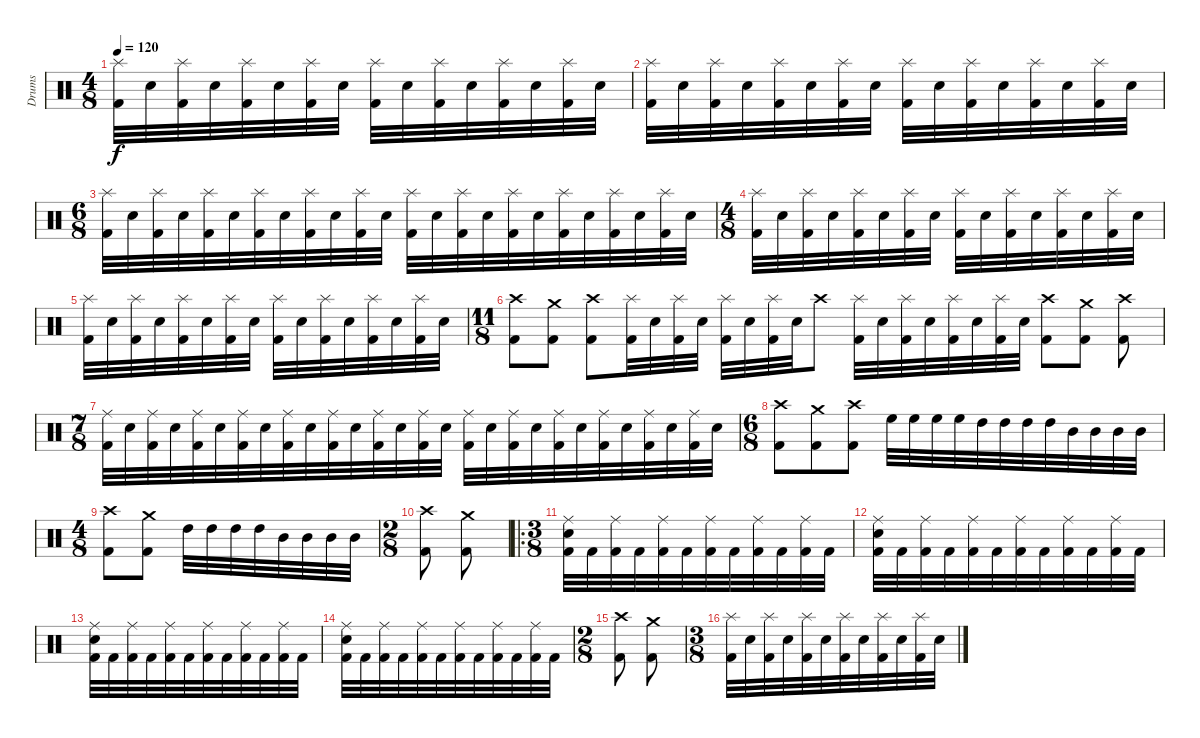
\track ("Drums" "Drums") {instrument percussion}
\staff {score}
\articulation defaults
\ts (4 8)
\tempo 120
\clef neutral
\ks c
("Splash (hit)" "Kick (hit) 2").32{dy f} "Snare (hit) 2".32 ("Splash (hit)" "Kick (hit) 2").32 "Snare (hit) 2".32 ("Splash (hit)" "Kick (hit) 2").32 "Snare (hit) 2".32 ("Splash (hit)" "Kick (hit) 2").32 "Snare (hit) 2".32 ("Splash (hit)" "Kick (hit) 2").32 "Snare (hit) 2".32 ("Splash (hit)" "Kick (hit) 2").32 "Snare (hit) 2".32 ("Splash (hit)" "Kick (hit) 2").32 "Snare (hit) 2".32 ("Splash (hit)" "Kick (hit) 2").32 "Snare (hit) 2".32 |
("Splash (hit)" "Kick (hit) 2").32 "Snare (hit) 2".32 ("Splash (hit)" "Kick (hit) 2").32 "Snare (hit) 2".32 ("Splash (hit)" "Kick (hit) 2").32 "Snare (hit) 2".32 ("Splash (hit)" "Kick (hit) 2").32 "Snare (hit) 2".32 ("Splash (hit)" "Kick (hit) 2").32 "Snare (hit) 2".32 ("Splash (hit)" "Kick (hit) 2").32 "Snare (hit) 2".32 ("Splash (hit)" "Kick (hit) 2").32 "Snare (hit) 2".32 ("Splash (hit)" "Kick (hit) 2").32 "Snare (hit) 2".32 |
\ts (6 8)
("Splash (hit)" "Kick (hit) 2").32 "Snare (hit) 2".32 ("Splash (hit)" "Kick (hit) 2").32 "Snare (hit) 2".32 ("Splash (hit)" "Kick (hit) 2").32 "Snare (hit) 2".32 ("Splash (hit)" "Kick (hit) 2").32 "Snare (hit) 2".32 ("Splash (hit)" "Kick (hit) 2").32 "Snare (hit) 2".32 ("Splash (hit)" "Kick (hit) 2").32 "Snare (hit) 2".32 ("Splash (hit)" "Kick (hit) 2").32 "Snare (hit) 2".32 ("Splash (hit)" "Kick (hit) 2").32 "Snare (hit) 2".32 ("Splash (hit)" "Kick (hit) 2").32 "Snare (hit) 2".32 ("Splash (hit)" "Kick (hit) 2").32 "Snare (hit) 2".32 ("Splash (hit)" "Kick (hit) 2").32 "Snare (hit) 2".32 ("Splash (hit)" "Kick (hit) 2").32 "Snare (hit) 2".32 |
\ts (4 8)
("Splash (hit)" "Kick (hit) 2").32 "Snare (hit) 2".32 ("Splash (hit)" "Kick (hit) 2").32 "Snare (hit) 2".32 ("Splash (hit)" "Kick (hit) 2").32 "Snare (hit) 2".32 ("Splash (hit)" "Kick (hit) 2").32 "Snare (hit) 2".32 ("Splash (hit)" "Kick (hit) 2").32 "Snare (hit) 2".32 ("Splash (hit)" "Kick (hit) 2").32 "Snare (hit) 2".32 ("Splash (hit)" "Kick (hit) 2").32 "Snare (hit) 2".32 ("Splash (hit)" "Kick (hit) 2").32 "Snare (hit) 2".32 |
("Splash (hit)" "Kick (hit) 2").32 "Snare (hit) 2".32 ("Splash (hit)" "Kick (hit) 2").32 "Snare (hit) 2".32 ("Splash (hit)" "Kick (hit) 2").32 "Snare (hit) 2".32 ("Splash (hit)" "Kick (hit) 2").32 "Snare (hit) 2".32 ("Splash (hit)" "Kick (hit) 2").32 "Snare (hit) 2".32 ("Splash (hit)" "Kick (hit) 2").32 "Snare (hit) 2".32 ("Splash (hit)" "Kick (hit) 2").32 "Snare (hit) 2".32 ("Splash (hit)" "Kick (hit) 2").32 "Snare (hit) 2".32 |
\ts (11 8)
("Crash high (hit)" "Kick (hit) 2").8 ("Crash medium (hit)" "Kick (hit) 2").8 ("Crash high (hit)" "Kick (hit) 2").8 ("Splash (hit)" "Kick (hit) 2").32 "Snare (hit) 2".32 ("Splash (hit)" "Kick (hit) 2").32 "Snare (hit) 2".32 ("Splash (hit)" "Kick (hit) 2").32 "Snare (hit) 2".32 ("Splash (hit)" "Kick (hit) 2").32 "Snare (hit) 2".32 "Crash high (hit)".8 ("Splash (hit)" "Kick (hit) 2").32 "Snare (hit) 2".32 ("Splash (hit)" "Kick (hit) 2").32 "Snare (hit) 2".32 ("Splash (hit)" "Kick (hit) 2").32 "Snare (hit) 2".32 ("Splash (hit)" "Kick (hit) 2").32 "Snare (hit) 2".32 ("Crash high (hit)" "Kick (hit) 2").8 ("Crash medium (hit)" "Kick (hit) 2").8 ("Crash high (hit)" "Kick (hit) 2").8 |
\ts (7 8)
("Ride (middle)" "Kick (hit) 2").32 "Snare (hit) 2".32 ("Ride (middle)" "Kick (hit) 2").32 "Snare (hit) 2".32 ("Ride (middle)" "Kick (hit) 2").32 "Snare (hit) 2".32 ("Ride (middle)" "Kick (hit) 2").32 "Snare (hit) 2".32 ("Ride (middle)" "Kick (hit) 2").32 "Snare (hit) 2".32 ("Ride (middle)" "Kick (hit) 2").32 "Snare (hit) 2".32 ("Ride (middle)" "Kick (hit) 2").32 "Snare (hit) 2".32 ("Ride (middle)" "Kick (hit) 2").32 "Snare (hit) 2".32 ("Ride (middle)" "Kick (hit) 2").32 "Snare (hit) 2".32 ("Ride (middle)" "Kick (hit) 2").32 "Snare (hit) 2".32 ("Ride (middle)" "Kick (hit) 2").32 "Snare (hit) 2".32 ("Ride (middle)" "Kick (hit) 2").32 "Snare (hit) 2".32 ("Ride (middle)" "Kick (hit) 2").32 "Snare (hit) 2".32 ("Ride (middle)" "Kick (hit) 2").32 "Snare (hit) 2".32 |
\ts (6 8)
("Crash high (hit)" "Kick (hit) 2").8 ("Crash medium (hit)" "Kick (hit) 2").8 ("Crash high (hit)" "Kick (hit) 2").8 "High Floor Tom (hit)".32 "High Floor Tom (hit)".32 "High Floor Tom (hit)".32 "High Floor Tom (hit)".32 "High Tom (hit)".32 "High Tom (hit)".32 "High Tom (hit)".32 "High Tom (hit)".32 "Mid Tom (hit)".32 "Mid Tom (hit)".32 "Mid Tom (hit)".32 "Mid Tom (hit)".32 |
\ts (4 8)
("Crash high (hit)" "Kick (hit) 2").8 ("Crash medium (hit)" "Kick (hit) 2").8 "High Tom (hit)".32 "High Tom (hit)".32 "High Tom (hit)".32 "High Tom (hit)".32 "Mid Tom (hit)".32 "Mid Tom (hit)".32 "Mid Tom (hit)".32 "Mid Tom (hit)".32 |
\ts (2 8)
("Crash high (hit)" "Kick (hit) 2").8 ("Crash medium (hit)" "Kick (hit) 2").8 |
\ro
\ts (3 8)
("Ride (middle)" "Snare (hit) 2" "Kick (hit) 2").32 "Kick (hit) 2".32 ("Ride (middle)" "Kick (hit) 2").32 "Kick (hit) 2".32 ("Ride (middle)" "Kick (hit) 2").32 "Kick (hit) 2".32 ("Ride (middle)" "Kick (hit) 2").32 "Kick (hit) 2".32 ("Ride (middle)" "Kick (hit) 2").32 "Kick (hit) 2".32 ("Ride (middle)" "Kick (hit) 2").32 "Kick (hit) 2".32 |
("Ride (middle)" "Snare (hit) 2" "Kick (hit) 2").32 "Kick (hit) 2".32 ("Ride (middle)" "Kick (hit) 2").32 "Kick (hit) 2".32 ("Ride (middle)" "Kick (hit) 2").32 "Kick (hit) 2".32 ("Ride (middle)" "Kick (hit) 2").32 "Kick (hit) 2".32 ("Ride (middle)" "Kick (hit) 2").32 "Kick (hit) 2".32 ("Ride (middle)" "Kick (hit) 2").32 "Kick (hit) 2".32 |
("Ride (middle)" "Snare (hit) 2" "Kick (hit) 2").32 "Kick (hit) 2".32 ("Ride (middle)" "Kick (hit) 2").32 "Kick (hit) 2".32 ("Ride (middle)" "Kick (hit) 2").32 "Kick (hit) 2".32 ("Ride (middle)" "Kick (hit) 2").32 "Kick (hit) 2".32 ("Ride (middle)" "Kick (hit) 2").32 "Kick (hit) 2".32 ("Ride (middle)" "Kick (hit) 2").32 "Kick (hit) 2".32 |
("Ride (middle)" "Snare (hit) 2" "Kick (hit) 2").32 "Kick (hit) 2".32 ("Ride (middle)" "Kick (hit) 2").32 "Kick (hit) 2".32 ("Ride (middle)" "Kick (hit) 2").32 "Kick (hit) 2".32 ("Ride (middle)" "Kick (hit) 2").32 "Kick (hit) 2".32 ("Ride (middle)" "Kick (hit) 2").32 "Kick (hit) 2".32 ("Ride (middle)" "Kick (hit) 2").32 "Kick (hit) 2".32 |
\ts (2 8)
("Crash high (hit)" "Kick (hit) 2").8 ("Crash medium (hit)" "Kick (hit) 2").8 |
\ts (3 8)
("Splash (hit)" "Kick (hit) 2").32 "Snare (hit) 2".32 ("Splash (hit)" "Kick (hit) 2").32 "Snare (hit) 2".32 ("Splash (hit)" "Kick (hit) 2").32 "Snare (hit) 2".32 ("Splash (hit)" "Kick (hit) 2").32 "Snare (hit) 2".32 ("Splash (hit)" "Kick (hit) 2").32 "Snare (hit) 2".32 ("Splash (hit)" "Kick (hit) 2").32 "Snare (hit) 2".32
